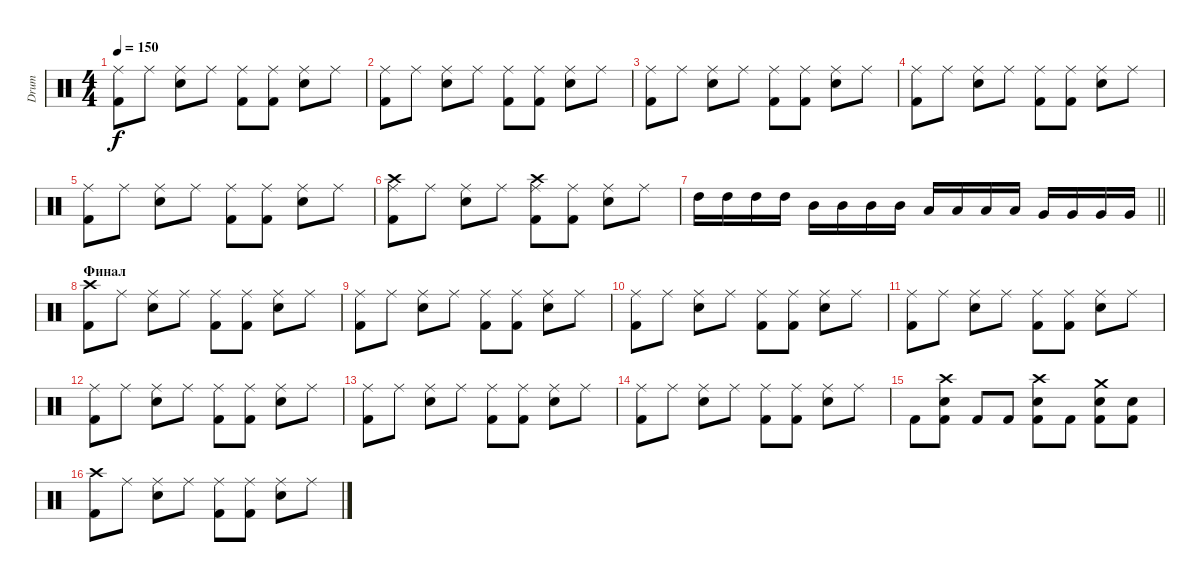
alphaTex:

\track ("Drum" "Drum") {instrument percussion}
\staff {score}
\articulation defaults
\ts (4 4)
\tempo 150
\clef neutral
\ks c
("Ride (middle)" "Kick (hit) 2").8{dy f} "Ride (middle)".8 ("Ride (middle)" "Electric Snare (hit)").8 "Ride (middle)".8 ("Ride (middle)" "Kick (hit) 2").8 ("Ride (middle)" "Kick (hit) 2").8 ("Ride (middle)" "Electric Snare (hit)").8 "Ride (middle)".8 |
("Ride (middle)" "Kick (hit) 2").8 "Ride (middle)".8 ("Ride (middle)" "Electric Snare (hit)").8 "Ride (middle)".8 ("Ride (middle)" "Kick (hit) 2").8 ("Ride (middle)" "Kick (hit) 2").8 ("Ride (middle)" "Electric Snare (hit)").8 "Ride (middle)".8 |
("Ride (middle)" "Kick (hit) 2").8 "Ride (middle)".8 ("Ride (middle)" "Electric Snare (hit)").8 "Ride (middle)".8 ("Ride (middle)" "Kick (hit) 2").8 ("Ride (middle)" "Kick (hit) 2").8 ("Ride (middle)" "Electric Snare (hit)").8 "Ride (middle)".8 |
("Ride (middle)" "Kick (hit) 2").8 "Ride (middle)".8 ("Ride (middle)" "Electric Snare (hit)").8 "Ride (middle)".8 ("Ride (middle)" "Kick (hit) 2").8 ("Ride (middle)" "Kick (hit) 2").8 ("Ride (middle)" "Electric Snare (hit)").8 "Ride (middle)".8 |
("Ride (middle)" "Kick (hit) 2").8 "Ride (middle)".8 ("Ride (middle)" "Electric Snare (hit)").8 "Ride (middle)".8 ("Ride (middle)" "Kick (hit) 2").8 ("Ride (middle)" "Kick (hit) 2").8 ("Ride (middle)" "Electric Snare (hit)").8 "Ride (middle)".8 |
("Ride (middle)" "Kick (hit) 2" "Crash high (hit)").8 "Ride (middle)".8 ("Ride (middle)" "Electric Snare (hit)").8 "Ride (middle)".8 ("Ride (middle)" "Kick (hit) 2" "Crash high (hit)").8 ("Ride (middle)" "Kick (hit) 2").8 ("Ride (middle)" "Electric Snare (hit)").8 "Ride (middle)".8 |
\barLineRight lightlight "High Tom (hit)".16 "High Tom (hit)".16 "High Tom (hit)".16 "High Tom (hit)".16 "Mid Tom (hit)".16 "Mid Tom (hit)".16 "Mid Tom (hit)".16 "Mid Tom (hit)".16 "Low Tom (hit)".16 "Low Tom (hit)".16 "Low Tom (hit)".16 "Low Tom (hit)".16 "Very Low Tom (hit)".16 "Very Low Tom (hit)".16 "Very Low Tom (hit)".16 "Very Low Tom (hit)".16
|
\section ("" "Финал")
("Crash high (hit)" "Kick (hit) 2").8 "Ride (middle)".8 ("Ride (middle)" "Electric Snare (hit)").8 "Ride (middle)".8 ("Ride (middle)" "Kick (hit) 2").8 ("Ride (middle)" "Kick (hit) 2").8 ("Ride (middle)" "Electric Snare (hit)").8 "Ride (middle)".8 |
("Ride (middle)" "Kick (hit) 2").8 "Ride (middle)".8 ("Ride (middle)" "Electric Snare (hit)").8 "Ride (middle)".8 ("Ride (middle)" "Kick (hit) 2").8 ("Ride (middle)" "Kick (hit) 2").8 ("Ride (middle)" "Electric Snare (hit)").8 "Ride (middle)".8 |
("Ride (middle)" "Kick (hit) 2").8 "Ride (middle)".8 ("Ride (middle)" "Electric Snare (hit)").8 "Ride (middle)".8 ("Ride (middle)" "Kick (hit) 2").8 ("Ride (middle)" "Kick (hit) 2").8 ("Ride (middle)" "Electric Snare (hit)").8 "Ride (middle)".8 |
("Ride (middle)" "Kick (hit) 2").8 "Ride (middle)".8 ("Ride (middle)" "Electric Snare (hit)").8 "Ride (middle)".8 ("Ride (middle)" "Kick (hit) 2").8 ("Ride (middle)" "Kick (hit) 2").8 ("Ride (middle)" "Electric Snare (hit)").8 "Ride (middle)".8 |
("Ride (middle)" "Kick (hit) 2").8 "Ride (middle)".8 ("Ride (middle)" "Electric Snare (hit)").8 "Ride (middle)".8 ("Ride (middle)" "Kick (hit) 2").8 ("Ride (middle)" "Kick (hit) 2").8 ("Ride (middle)" "Electric Snare (hit)").8 "Ride (middle)".8 |
("Ride (middle)" "Kick (hit) 2").8 "Ride (middle)".8 ("Ride (middle)" "Electric Snare (hit)").8 "Ride (middle)".8 ("Ride (middle)" "Kick (hit) 2").8 ("Ride (middle)" "Kick (hit) 2").8 ("Ride (middle)" "Electric Snare (hit)").8 "Ride (middle)".8 |
("Ride (middle)" "Kick (hit) 2").8 "Ride (middle)".8 ("Ride (middle)" "Electric Snare (hit)").8 "Ride (middle)".8 ("Ride (middle)" "Kick (hit) 2").8 ("Ride (middle)" "Kick (hit) 2").8 ("Ride (middle)" "Electric Snare (hit)").8 "Ride (middle)".8 |
"Kick (hit) 2".8 ("Electric Snare (hit)" "Crash high (hit)" "Kick (hit) 2").8 "Kick (hit) 2".8 "Kick (hit) 2".8 ("Electric Snare (hit)" "Crash high (hit)" "Kick (hit) 2").8 "Kick (hit) 2".8 ("Crash medium (hit)" "Electric Snare (hit)" "Kick (hit) 2").8 ("Electric Snare (hit)" "Kick (hit) 2").8 |
("Crash high (hit)" "Kick (hit) 2").8 "Ride (middle)".8 ("Ride (middle)" "Electric Snare (hit)").8 "Ride (middle)".8 ("Ride (middle)" "Kick (hit) 2").8 ("Ride (middle)" "Kick (hit) 2").8 ("Ride (middle)" "Electric Snare (hit)").8 "Ride (middle)".8
